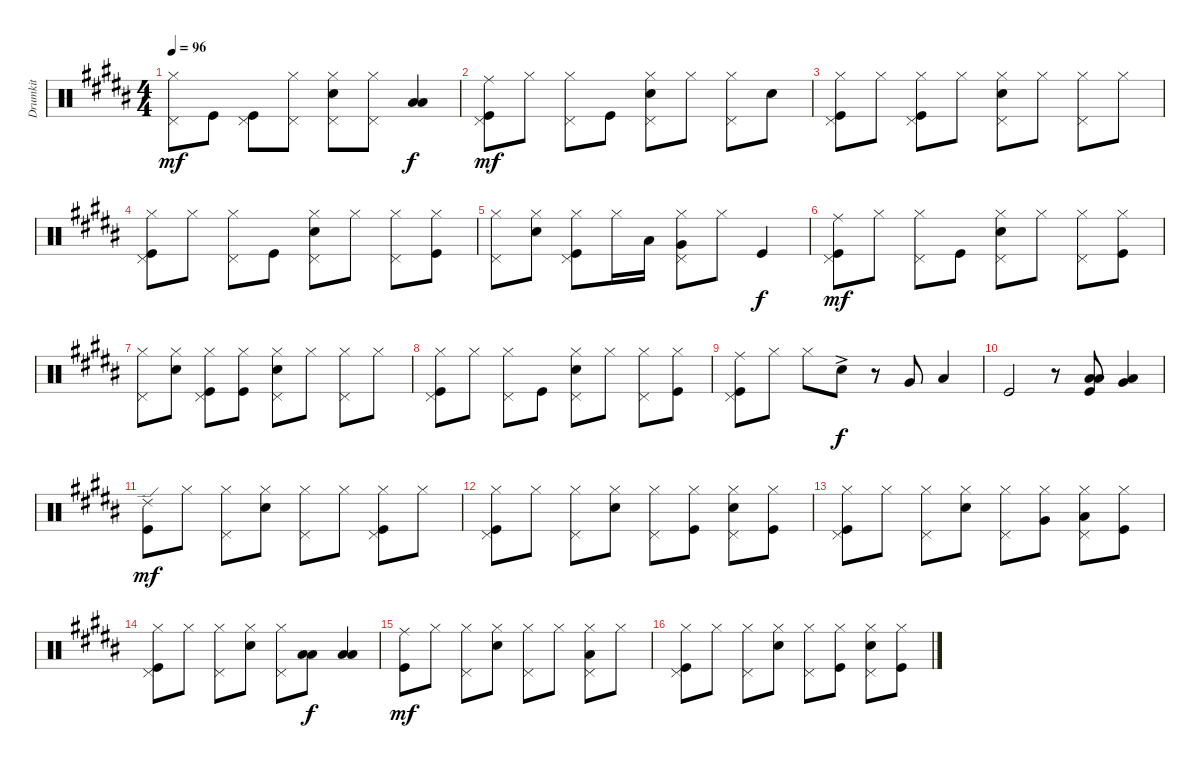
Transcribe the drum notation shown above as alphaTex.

\track ("Drumkit" "Drumkit") {instrument percussion}
\staff {score}
\articulation defaults
\ts (4 4)
\tempo 96
\clef neutral
\ks b
("Pedal Hi-Hat (hit)" "Hi-Hat (closed)").8{dy mf} "Kick (hit)".8 ("Kick (hit)" "Pedal Hi-Hat (hit)").8 ("Pedal Hi-Hat (hit)" "Hi-Hat (closed)").8 ("Snare (hit) 2" "Hi-Hat (closed)" "Pedal Hi-Hat (hit)").8 ("Hi-Hat (closed)" "Pedal Hi-Hat (hit)").8 ("Low Tom (hit)" "Low Floor Tom (hit)").4{dy f} |
("Kick (hit)" "Pedal Hi-Hat (hit)" "Ride (middle)").8{dy mf} "Hi-Hat (closed)".8 ("Pedal Hi-Hat (hit)" "Hi-Hat (closed)").8 "Kick (hit)".8 ("Snare (hit) 2" "Pedal Hi-Hat (hit)" "Hi-Hat (closed)").8 "Hi-Hat (closed)".8 ("Pedal Hi-Hat (hit)" "Hi-Hat (closed)").8 "Snare (hit) 2".8 |
("Kick (hit)" "Pedal Hi-Hat (hit)" "Hi-Hat (closed)").8 "Hi-Hat (closed)".8 ("Kick (hit)" "Hi-Hat (closed)" "Pedal Hi-Hat (hit)").8 "Hi-Hat (closed)".8 ("Snare (hit) 2" "Hi-Hat (closed)" "Pedal Hi-Hat (hit)").8 "Hi-Hat (closed)".8 ("Pedal Hi-Hat (hit)" "Hi-Hat (closed)").8 "Hi-Hat (closed)".8 |
("Kick (hit)" "Pedal Hi-Hat (hit)" "Hi-Hat (closed)").8 "Hi-Hat (closed)".8 ("Pedal Hi-Hat (hit)" "Hi-Hat (closed)").8 "Kick (hit)".8 ("Snare (hit) 2" "Pedal Hi-Hat (hit)" "Hi-Hat (closed)").8 "Hi-Hat (closed)".8 ("Pedal Hi-Hat (hit)" "Hi-Hat (closed)").8 ("Kick (hit)" "Hi-Hat (closed)").8 |
("Pedal Hi-Hat (hit)" "Hi-Hat (closed)").8 ("Snare (hit) 2" "Hi-Hat (closed)").8 ("Kick (hit)" "Pedal Hi-Hat (hit)" "Hi-Hat (closed)").8 "Hi-Hat (closed)".16 "Low Tom (hit)".16 ("Very Low Tom (hit)" "Hi-Hat (closed)" "Pedal Hi-Hat (hit)").8 "Hi-Hat (closed)".8 "Kick (hit)".4{dy f} |
("Kick (hit)" "Pedal Hi-Hat (hit)" "Ride (middle)").8{dy mf} "Hi-Hat (closed)".8 ("Pedal Hi-Hat (hit)" "Hi-Hat (closed)").8 "Kick (hit)".8 ("Snare (hit) 2" "Pedal Hi-Hat (hit)" "Hi-Hat (closed)").8 "Hi-Hat (closed)".8 ("Pedal Hi-Hat (hit)" "Hi-Hat (closed)").8 ("Kick (hit)" "Hi-Hat (closed)").8 |
("Pedal Hi-Hat (hit)" "Hi-Hat (closed)").8 ("Snare (hit) 2" "Hi-Hat (closed)").8 ("Hi-Hat (closed)" "Pedal Hi-Hat (hit)" "Kick (hit)").8 ("Kick (hit)" "Hi-Hat (closed)").8 ("Snare (hit) 2" "Hi-Hat (closed)" "Pedal Hi-Hat (hit)").8 "Hi-Hat (closed)".8 ("Hi-Hat (closed)" "Pedal Hi-Hat (hit)").8 "Hi-Hat (closed)".8 |
("Kick (hit)" "Pedal Hi-Hat (hit)" "Hi-Hat (closed)").8 "Hi-Hat (closed)".8 ("Pedal Hi-Hat (hit)" "Hi-Hat (closed)").8 "Kick (hit)".8 ("Snare (hit) 2" "Pedal Hi-Hat (hit)" "Hi-Hat (closed)").8 "Hi-Hat (closed)".8 ("Pedal Hi-Hat (hit)" "Hi-Hat (closed)").8 ("Kick (hit)" "Hi-Hat (closed)").8 |
("Kick (hit)" "Pedal Hi-Hat (hit)" "Ride (middle)").8 "Hi-Hat (closed)".8 "Hi-Hat (closed)".8 "Snare (hit) 2"{ac}.8{dy f} r.8 "Very Low Tom (hit)".8 "Low Floor Tom (hit)".4 |
"Kick (hit)".2 r.8 ("Kick (hit)" "Low Floor Tom (hit)" "Low Tom (hit)").8 ("Low Tom (hit)" "Very Low Tom (hit)").4 |
("Kick (hit)" "Ride (edge) 2").8{dy mf} "Hi-Hat (closed)".8 ("Hi-Hat (closed)" "Pedal Hi-Hat (hit)").8 ("Snare (hit) 2" "Hi-Hat (closed)").8 ("Pedal Hi-Hat (hit)" "Hi-Hat (closed)").8 "Hi-Hat (closed)".8 ("Hi-Hat (closed)" "Pedal Hi-Hat (hit)" "Kick (hit)").8 "Hi-Hat (closed)".8 |
("Kick (hit)" "Pedal Hi-Hat (hit)" "Hi-Hat (closed)").8 "Hi-Hat (closed)".8 ("Hi-Hat (closed)" "Pedal Hi-Hat (hit)").8 ("Snare (hit) 2" "Hi-Hat (closed)").8 ("Pedal Hi-Hat (hit)" "Hi-Hat (closed)").8 ("Kick (hit)" "Hi-Hat (closed)").8 ("Snare (hit) 2" "Pedal Hi-Hat (hit)" "Hi-Hat (closed)").8 ("Kick (hit)" "Hi-Hat (closed)").8 |
("Kick (hit)" "Pedal Hi-Hat (hit)" "Hi-Hat (closed)").8 "Hi-Hat (closed)".8 ("Hi-Hat (closed)" "Pedal Hi-Hat (hit)").8 ("Snare (hit) 2" "Hi-Hat (closed)").8 ("Pedal Hi-Hat (hit)" "Hi-Hat (closed)").8 ("Very Low Tom (hit)" "Hi-Hat (closed)").8 ("Low Tom (hit)" "Pedal Hi-Hat (hit)" "Hi-Hat (closed)").8 ("Kick (hit)" "Hi-Hat (closed)").8 |
("Kick (hit)" "Pedal Hi-Hat (hit)" "Hi-Hat (closed)").8 "Hi-Hat (closed)".8 ("Hi-Hat (closed)" "Pedal Hi-Hat (hit)").8 ("Snare (hit) 2" "Hi-Hat (closed)").8 ("Pedal Hi-Hat (hit)" "Hi-Hat (closed)").8 ("Low Tom (hit)" "Low Floor Tom (hit)").8{dy f} ("Low Tom (hit)" "Low Floor Tom (hit)").4 |
("Kick (hit)" "Ride (middle)").8{dy mf} "Hi-Hat (closed)".8 ("Hi-Hat (closed)" "Pedal Hi-Hat (hit)").8 ("Snare (hit) 2" "Hi-Hat (closed)").8 ("Pedal Hi-Hat (hit)" "Hi-Hat (closed)").8 "Hi-Hat (closed)".8 ("Hi-Hat (closed)" "Pedal Hi-Hat (hit)" "Low Tom (hit)").8 "Hi-Hat (closed)".8 |
("Kick (hit)" "Pedal Hi-Hat (hit)" "Hi-Hat (closed)").8 "Hi-Hat (closed)".8 ("Hi-Hat (closed)" "Pedal Hi-Hat (hit)").8 ("Snare (hit) 2" "Hi-Hat (closed)").8 ("Pedal Hi-Hat (hit)" "Hi-Hat (closed)").8 ("Kick (hit)" "Hi-Hat (closed)").8 ("Snare (hit) 2" "Pedal Hi-Hat (hit)" "Hi-Hat (closed)").8 ("Kick (hit)" "Hi-Hat (closed)").8
